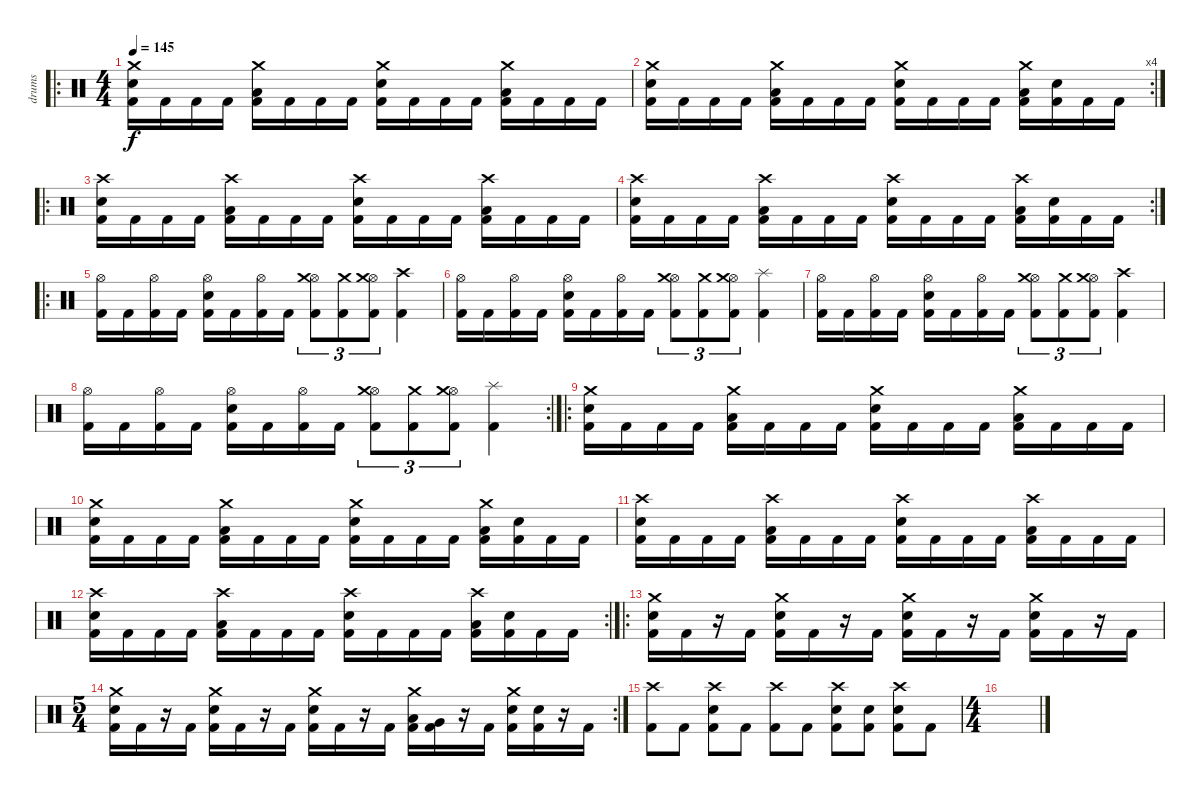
\track ("drums" "drums") {instrument percussion}
\staff {score}
\articulation defaults
\ro
\ts (4 4)
\tempo 145
\clef neutral
\ks c
("Crash medium (hit)" "Electric Snare (hit)" "Kick (hit) 2").16{dy f} "Kick (hit) 2".16 "Kick (hit) 2".16 "Kick (hit) 2".16 ("Crash medium (hit)" "Low Floor Tom (hit)" "Kick (hit) 2").16 "Kick (hit) 2".16 "Kick (hit) 2".16 "Kick (hit) 2".16 ("Crash medium (hit)" "Electric Snare (hit)" "Kick (hit) 2").16 "Kick (hit) 2".16 "Kick (hit) 2".16 "Kick (hit) 2".16 ("Crash medium (hit)" "Low Floor Tom (hit)" "Kick (hit) 2").16 "Kick (hit) 2".16 "Kick (hit) 2".16 "Kick (hit) 2".16 |
\rc 4
("Crash medium (hit)" "Electric Snare (hit)" "Kick (hit) 2").16 "Kick (hit) 2".16 "Kick (hit) 2".16 "Kick (hit) 2".16 ("Crash medium (hit)" "Low Floor Tom (hit)" "Kick (hit) 2").16 "Kick (hit) 2".16 "Kick (hit) 2".16 "Kick (hit) 2".16 ("Crash medium (hit)" "Electric Snare (hit)" "Kick (hit) 2").16 "Kick (hit) 2".16 "Kick (hit) 2".16 "Kick (hit) 2".16 ("Crash medium (hit)" "Low Floor Tom (hit)" "Kick (hit) 2").16 ("Electric Snare (hit)" "Kick (hit) 2").16 "Kick (hit) 2".16 "Kick (hit) 2".16 |
\ro
("Crash high (hit)" "Electric Snare (hit)" "Kick (hit) 2").16 "Kick (hit) 2".16 "Kick (hit) 2".16 "Kick (hit) 2".16 ("Crash high (hit)" "Low Floor Tom (hit)" "Kick (hit) 2").16 "Kick (hit) 2".16 "Kick (hit) 2".16 "Kick (hit) 2".16 ("Crash high (hit)" "Electric Snare (hit)" "Kick (hit) 2").16 "Kick (hit) 2".16 "Kick (hit) 2".16 "Kick (hit) 2".16 ("Crash high (hit)" "Low Floor Tom (hit)" "Kick (hit) 2").16 "Kick (hit) 2".16 "Kick (hit) 2".16 "Kick (hit) 2".16 |
\rc 2
("Crash high (hit)" "Electric Snare (hit)" "Kick (hit) 2").16 "Kick (hit) 2".16 "Kick (hit) 2".16 "Kick (hit) 2".16 ("Crash high (hit)" "Low Floor Tom (hit)" "Kick (hit) 2").16 "Kick (hit) 2".16 "Kick (hit) 2".16 "Kick (hit) 2".16 ("Crash high (hit)" "Electric Snare (hit)" "Kick (hit) 2").16 "Kick (hit) 2".16 "Kick (hit) 2".16 "Kick (hit) 2".16 ("Crash high (hit)" "Low Floor Tom (hit)" "Kick (hit) 2").16 ("Electric Snare (hit)" "Kick (hit) 2").16 "Kick (hit) 2".16 "Kick (hit) 2".16 |
\ro
("Hi-Hat (open)" "Kick (hit) 2").16 "Kick (hit) 2".16 ("Hi-Hat (open)" "Kick (hit) 2").16 "Kick (hit) 2".16 ("Hi-Hat (open)" "Electric Snare (hit)" "Kick (hit) 2").16 "Kick (hit) 2".16 ("Hi-Hat (open)" "Kick (hit) 2").16 "Kick (hit) 2".16 ("Hi-Hat (open)" "Crash medium (hit)" "Kick (hit) 2").8{tu (3 2)} ("Crash medium (hit)" "Kick (hit) 2").8{tu (3 2)} ("Hi-Hat (open)" "Crash medium (hit)" "Kick (hit) 2").8{tu (3 2)} ("Crash high (hit)" "Kick (hit) 2").4 |
("Hi-Hat (open)" "Kick (hit) 2").16 "Kick (hit) 2".16 ("Hi-Hat (open)" "Kick (hit) 2").16 "Kick (hit) 2".16 ("Hi-Hat (open)" "Electric Snare (hit)" "Kick (hit) 2").16 "Kick (hit) 2".16 ("Hi-Hat (open)" "Kick (hit) 2").16 "Kick (hit) 2".16 ("Hi-Hat (open)" "Crash medium (hit)" "Kick (hit) 2").8{tu (3 2)} ("Crash medium (hit)" "Kick (hit) 2").8{tu (3 2)} ("Hi-Hat (open)" "Crash medium (hit)" "Kick (hit) 2").8{tu (3 2)} ("Splash (hit)" "Kick (hit) 2").4 |
("Hi-Hat (open)" "Kick (hit) 2").16 "Kick (hit) 2".16 ("Hi-Hat (open)" "Kick (hit) 2").16 "Kick (hit) 2".16 ("Hi-Hat (open)" "Electric Snare (hit)" "Kick (hit) 2").16 "Kick (hit) 2".16 ("Hi-Hat (open)" "Kick (hit) 2").16 "Kick (hit) 2".16 ("Hi-Hat (open)" "Crash medium (hit)" "Kick (hit) 2").8{tu (3 2)} ("Crash medium (hit)" "Kick (hit) 2").8{tu (3 2)} ("Hi-Hat (open)" "Crash medium (hit)" "Kick (hit) 2").8{tu (3 2)} ("Crash high (hit)" "Kick (hit) 2").4 |
\rc 2
("Hi-Hat (open)" "Kick (hit) 2").16 "Kick (hit) 2".16 ("Hi-Hat (open)" "Kick (hit) 2").16 "Kick (hit) 2".16 ("Hi-Hat (open)" "Electric Snare (hit)" "Kick (hit) 2").16 "Kick (hit) 2".16 ("Hi-Hat (open)" "Kick (hit) 2").16 "Kick (hit) 2".16 ("Hi-Hat (open)" "Crash medium (hit)" "Kick (hit) 2").8{tu (3 2)} ("Crash medium (hit)" "Kick (hit) 2").8{tu (3 2)} ("Hi-Hat (open)" "Crash medium (hit)" "Kick (hit) 2").8{tu (3 2)} ("Splash (hit)" "Kick (hit) 2").4 |
\ro
("Crash medium (hit)" "Electric Snare (hit)" "Kick (hit) 2").16 "Kick (hit) 2".16 "Kick (hit) 2".16 "Kick (hit) 2".16 ("Crash medium (hit)" "Low Floor Tom (hit)" "Kick (hit) 2").16 "Kick (hit) 2".16 "Kick (hit) 2".16 "Kick (hit) 2".16 ("Crash medium (hit)" "Electric Snare (hit)" "Kick (hit) 2").16 "Kick (hit) 2".16 "Kick (hit) 2".16 "Kick (hit) 2".16 ("Crash medium (hit)" "Low Floor Tom (hit)" "Kick (hit) 2").16 "Kick (hit) 2".16 "Kick (hit) 2".16 "Kick (hit) 2".16 |
("Crash medium (hit)" "Electric Snare (hit)" "Kick (hit) 2").16 "Kick (hit) 2".16 "Kick (hit) 2".16 "Kick (hit) 2".16 ("Crash medium (hit)" "Low Floor Tom (hit)" "Kick (hit) 2").16 "Kick (hit) 2".16 "Kick (hit) 2".16 "Kick (hit) 2".16 ("Crash medium (hit)" "Electric Snare (hit)" "Kick (hit) 2").16 "Kick (hit) 2".16 "Kick (hit) 2".16 "Kick (hit) 2".16 ("Crash medium (hit)" "Low Floor Tom (hit)" "Kick (hit) 2").16 ("Electric Snare (hit)" "Kick (hit) 2").16 "Kick (hit) 2".16 "Kick (hit) 2".16 |
("Crash high (hit)" "Electric Snare (hit)" "Kick (hit) 2").16 "Kick (hit) 2".16 "Kick (hit) 2".16 "Kick (hit) 2".16 ("Crash high (hit)" "Low Floor Tom (hit)" "Kick (hit) 2").16 "Kick (hit) 2".16 "Kick (hit) 2".16 "Kick (hit) 2".16 ("Crash high (hit)" "Electric Snare (hit)" "Kick (hit) 2").16 "Kick (hit) 2".16 "Kick (hit) 2".16 "Kick (hit) 2".16 ("Crash high (hit)" "Low Floor Tom (hit)" "Kick (hit) 2").16 "Kick (hit) 2".16 "Kick (hit) 2".16 "Kick (hit) 2".16 |
\rc 2
("Crash high (hit)" "Electric Snare (hit)" "Kick (hit) 2").16 "Kick (hit) 2".16 "Kick (hit) 2".16 "Kick (hit) 2".16 ("Crash high (hit)" "Low Floor Tom (hit)" "Kick (hit) 2").16 "Kick (hit) 2".16 "Kick (hit) 2".16 "Kick (hit) 2".16 ("Crash high (hit)" "Electric Snare (hit)" "Kick (hit) 2").16 "Kick (hit) 2".16 "Kick (hit) 2".16 "Kick (hit) 2".16 ("Crash high (hit)" "Low Floor Tom (hit)" "Kick (hit) 2").16 ("Electric Snare (hit)" "Kick (hit) 2").16 "Kick (hit) 2".16 "Kick (hit) 2".16 |
\ro
("Crash medium (hit)" "Electric Snare (hit)" "Kick (hit) 2").16 "Kick (hit) 2".16 r.16 "Kick (hit) 2".16 ("Crash medium (hit)" "Electric Snare (hit)" "Kick (hit) 2").16 "Kick (hit) 2".16 r.16 "Kick (hit) 2".16 ("Crash medium (hit)" "Electric Snare (hit)" "Kick (hit) 2").16 "Kick (hit) 2".16 r.16 "Kick (hit) 2".16 ("Crash medium (hit)" "Electric Snare (hit)" "Kick (hit) 2").16 "Kick (hit) 2".16 r.16 "Kick (hit) 2".16 |
\rc 2
\ts (5 4)
("Crash medium (hit)" "Electric Snare (hit)" "Kick (hit) 2").16 "Kick (hit) 2".16 r.16 "Kick (hit) 2".16 ("Crash medium (hit)" "Electric Snare (hit)" "Kick (hit) 2").16 "Kick (hit) 2".16 r.16 "Kick (hit) 2".16 ("Crash medium (hit)" "Electric Snare (hit)" "Kick (hit) 2").16 "Kick (hit) 2".16 r.16 "Kick (hit) 2".16 ("Crash medium (hit)" "Low Floor Tom (hit)" "Kick (hit) 2").16 ("Very Low Tom (hit)" "Kick (hit) 2").16 r.16 "Kick (hit) 2".16 ("Crash medium (hit)" "Electric Snare (hit)" "Kick (hit) 2").16 ("Electric Snare (hit)" "Kick (hit) 2").16 r.16 "Kick (hit) 2".16 |
("Crash high (hit)" "Kick (hit) 2").8 "Kick (hit) 2".8 ("Crash high (hit)" "Electric Snare (hit)" "Kick (hit) 2").8 "Kick (hit) 2".8 ("Crash high (hit)" "Kick (hit) 2").8 "Kick (hit) 2".8 ("Crash high (hit)" "Electric Snare (hit)" "Kick (hit) 2").8 ("Electric Snare (hit)" "Kick (hit) 2").8 ("Crash high (hit)" "Electric Snare (hit)" "Kick (hit) 2").8 "Kick (hit) 2".8 |
\ts (4 4)
